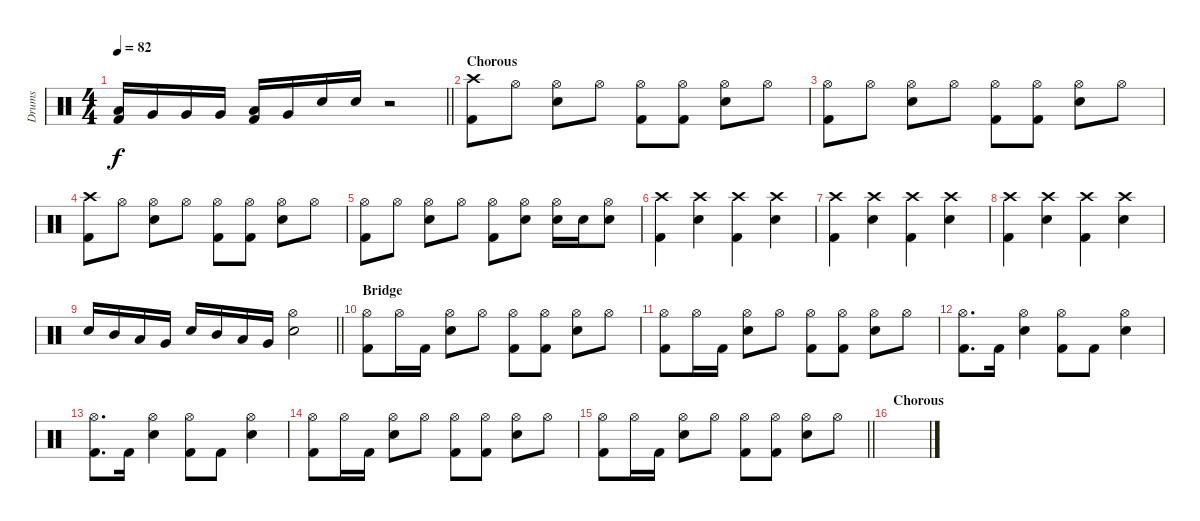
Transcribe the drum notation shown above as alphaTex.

\track ("Drums" "Drums") {instrument percussion}
\staff {score}
\articulation defaults
\ts (4 4)
\tempo 82
\clef neutral
\barLineRight lightlight
\ks c
("Low Tom (hit)" "Kick (hit) 2").16{dy f} "Very Low Tom (hit)".16 "Very Low Tom (hit)".16 "Very Low Tom (hit)".16 ("Low Tom (hit)" "Kick (hit) 2").16 "Very Low Tom (hit)".16 "Snare (hit) 2".16 "Snare (hit) 2".16 r.2 |
\section ("" "Chorous")
("Crash high (hit)" "Kick (hit) 2").8 "Hi-Hat (open)".8 ("Hi-Hat (open)" "Snare (hit) 2").8 "Hi-Hat (open)".8 ("Hi-Hat (open)" "Kick (hit) 2").8 ("Hi-Hat (open)" "Kick (hit) 2").8 ("Hi-Hat (open)" "Snare (hit) 2").8 "Hi-Hat (open)".8 |
("Hi-Hat (open)" "Kick (hit) 2").8 "Hi-Hat (open)".8 ("Hi-Hat (open)" "Snare (hit) 2").8 "Hi-Hat (open)".8 ("Hi-Hat (open)" "Kick (hit) 2").8 ("Hi-Hat (open)" "Kick (hit) 2").8 ("Hi-Hat (open)" "Snare (hit) 2").8 "Hi-Hat (open)".8 |
("Crash high (hit)" "Kick (hit) 2").8 "Hi-Hat (open)".8 ("Hi-Hat (open)" "Snare (hit) 2").8 "Hi-Hat (open)".8 ("Hi-Hat (open)" "Kick (hit) 2").8 ("Hi-Hat (open)" "Kick (hit) 2").8 ("Hi-Hat (open)" "Snare (hit) 2").8 "Hi-Hat (open)".8 |
("Hi-Hat (open)" "Kick (hit) 2").8 "Hi-Hat (open)".8 ("Hi-Hat (open)" "Snare (hit) 2").8 "Hi-Hat (open)".8 ("Hi-Hat (open)" "Kick (hit) 2").8 ("Hi-Hat (open)" "Snare (hit) 2").8 ("Hi-Hat (open)" "Snare (hit) 2").16 "Snare (hit) 2".16 ("Hi-Hat (open)" "Snare (hit) 2").8 |
("Crash high (hit)" "Kick (hit) 2").4 ("Crash high (hit)" "Snare (hit) 2").4 ("Crash high (hit)" "Kick (hit) 2").4 ("Crash high (hit)" "Snare (hit) 2").4 |
("Crash high (hit)" "Kick (hit) 2").4 ("Crash high (hit)" "Snare (hit) 2").4 ("Crash high (hit)" "Kick (hit) 2").4 ("Crash high (hit)" "Snare (hit) 2").4 |
("Crash high (hit)" "Kick (hit) 2").4 ("Crash high (hit)" "Snare (hit) 2").4 ("Crash high (hit)" "Kick (hit) 2").4 ("Crash high (hit)" "Snare (hit) 2").4 |
\barLineRight lightlight "Snare (hit) 2".16 "Mid Tom (hit)".16 "Low Tom (hit)".16 "Very Low Tom (hit)".16 "Snare (hit) 2".16 "Mid Tom (hit)".16 "Low Tom (hit)".16 "Very Low Tom (hit)".16
("Hi-Hat (open)" "Snare (hit) 2").2 |
\section ("" "Bridge")
("Hi-Hat (open)" "Kick (hit) 2").8 "Hi-Hat (open)".16 "Kick (hit) 2".16 ("Hi-Hat (open)" "Snare (hit) 2").8 "Hi-Hat (open)".8 ("Hi-Hat (open)" "Kick (hit) 2").8 ("Hi-Hat (open)" "Kick (hit) 2").8 ("Hi-Hat (open)" "Snare (hit) 2").8 "Hi-Hat (open)".8 |
("Hi-Hat (open)" "Kick (hit) 2").8 "Hi-Hat (open)".16 "Kick (hit) 2".16 ("Hi-Hat (open)" "Snare (hit) 2").8 "Hi-Hat (open)".8 ("Hi-Hat (open)" "Kick (hit) 2").8 ("Hi-Hat (open)" "Kick (hit) 2").8 ("Hi-Hat (open)" "Snare (hit) 2").8 "Hi-Hat (open)".8 |
("Hi-Hat (open)" "Kick (hit) 2").8{d} "Kick (hit) 2".16 ("Hi-Hat (open)" "Snare (hit) 2").4 ("Hi-Hat (open)" "Kick (hit) 2").8 "Kick (hit) 2".8 ("Hi-Hat (open)" "Snare (hit) 2").4 |
("Hi-Hat (open)" "Kick (hit) 2").8{d} "Kick (hit) 2".16 ("Hi-Hat (open)" "Snare (hit) 2").4 ("Hi-Hat (open)" "Kick (hit) 2").8 "Kick (hit) 2".8 ("Hi-Hat (open)" "Snare (hit) 2").4 |
("Hi-Hat (open)" "Kick (hit) 2").8 "Hi-Hat (open)".16 "Kick (hit) 2".16 ("Hi-Hat (open)" "Snare (hit) 2").8 "Hi-Hat (open)".8 ("Hi-Hat (open)" "Kick (hit) 2").8 ("Hi-Hat (open)" "Kick (hit) 2").8 ("Hi-Hat (open)" "Snare (hit) 2").8 "Hi-Hat (open)".8 |
\barLineRight lightlight
("Hi-Hat (open)" "Kick (hit) 2").8 "Hi-Hat (open)".16 "Kick (hit) 2".16 ("Hi-Hat (open)" "Snare (hit) 2").8 "Hi-Hat (open)".8 ("Hi-Hat (open)" "Kick (hit) 2").8 ("Hi-Hat (open)" "Kick (hit) 2").8 ("Hi-Hat (open)" "Snare (hit) 2").8 "Hi-Hat (open)".8 |
\section ("" "Chorous")
